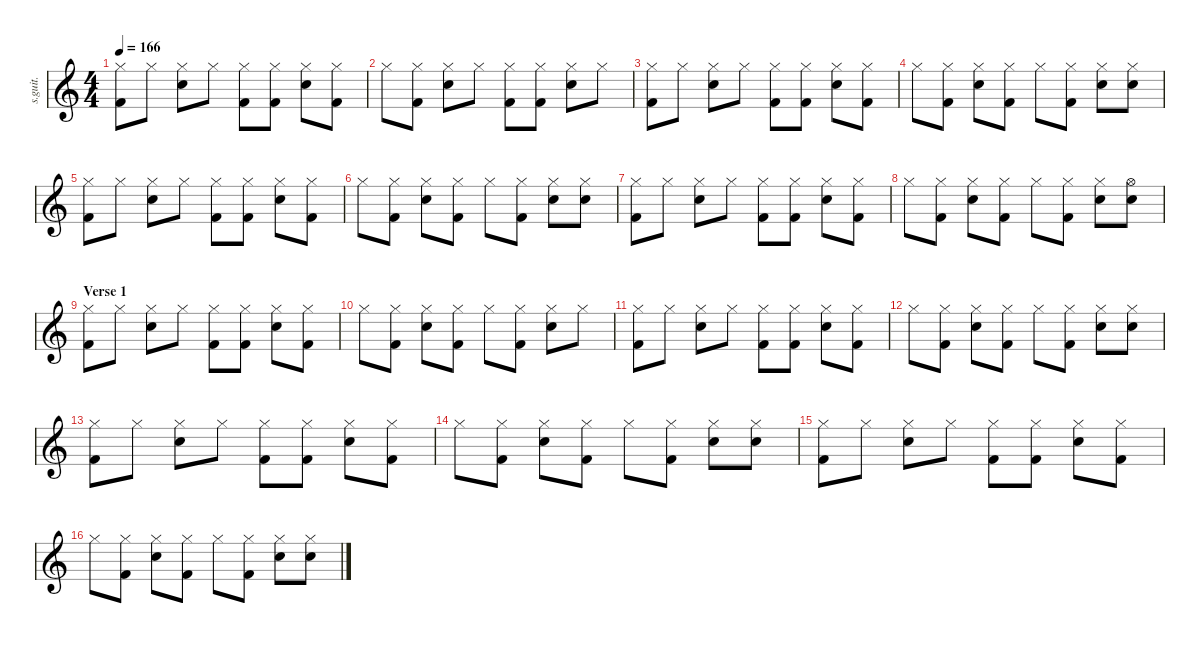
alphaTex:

\defaultSystemsLayout 4
\hideDynamics
\bracketExtendMode nobrackets
\track ("Phil Selway" "s.guit.") {instrument percussion}
\staff {score}
\articulation defaults
\ts (4 4)
\tempo 166
\clef g2
\ks c
("Hi-Hat (closed)" "Kick (hit) 2").8{lyrics (0 "") lyrics (1 "") lyrics (2 "") lyrics (3 "") lyrics (4 "") dy f} "Hi-Hat (closed)".8{lyrics (0 "") lyrics (1 "") lyrics (2 "") lyrics (3 "") lyrics (4 "") dy mp} ("Hi-Hat (closed)" "Electric Snare (hit)").8{lyrics (0 "") lyrics (1 "") lyrics (2 "") lyrics (3 "") lyrics (4 "") dy f} "Hi-Hat (closed)".8{lyrics (0 "") lyrics (1 "") lyrics (2 "") lyrics (3 "") lyrics (4 "") dy mp} ("Hi-Hat (closed)" "Kick (hit) 2").8{lyrics (0 "") lyrics (1 "") lyrics (2 "") lyrics (3 "") lyrics (4 "") dy f} ("Hi-Hat (closed)" "Kick (hit) 2").8{lyrics (0 "") lyrics (1 "") lyrics (2 "") lyrics (3 "") lyrics (4 "")} ("Hi-Hat (closed)" "Electric Snare (hit)").8{lyrics (0 "") lyrics (1 "") lyrics (2 "") lyrics (3 "") lyrics (4 "")} ("Hi-Hat (closed)" "Kick (hit) 2").8{lyrics (0 "") lyrics (1 "") lyrics (2 "") lyrics (3 "") lyrics (4 "")} |
"Hi-Hat (closed)".8{lyrics (0 "") lyrics (1 "") lyrics (2 "") lyrics (3 "") lyrics (4 "") dy ff} ("Hi-Hat (closed)" "Kick (hit) 2").8{lyrics (0 "") lyrics (1 "") lyrics (2 "") lyrics (3 "") lyrics (4 "") dy f} ("Hi-Hat (closed)" "Electric Snare (hit)").8{lyrics (0 "") lyrics (1 "") lyrics (2 "") lyrics (3 "") lyrics (4 "")} "Hi-Hat (closed)".8{lyrics (0 "") lyrics (1 "") lyrics (2 "") lyrics (3 "") lyrics (4 "") dy mp} ("Hi-Hat (closed)" "Kick (hit) 2").8{lyrics (0 "") lyrics (1 "") lyrics (2 "") lyrics (3 "") lyrics (4 "") dy f} ("Hi-Hat (closed)" "Kick (hit) 2").8{lyrics (0 "") lyrics (1 "") lyrics (2 "") lyrics (3 "") lyrics (4 "")} ("Hi-Hat (closed)" "Electric Snare (hit)").8{lyrics (0 "") lyrics (1 "") lyrics (2 "") lyrics (3 "") lyrics (4 "")} "Hi-Hat (closed)".8{lyrics (0 "") lyrics (1 "") lyrics (2 "") lyrics (3 "") lyrics (4 "") dy mp} |
("Hi-Hat (closed)" "Kick (hit) 2").8{lyrics (0 "") lyrics (1 "") lyrics (2 "") lyrics (3 "") lyrics (4 "") dy f} "Hi-Hat (closed)".8{lyrics (0 "") lyrics (1 "") lyrics (2 "") lyrics (3 "") lyrics (4 "") dy mp} ("Hi-Hat (closed)" "Electric Snare (hit)").8{lyrics (0 "") lyrics (1 "") lyrics (2 "") lyrics (3 "") lyrics (4 "") dy f} "Hi-Hat (closed)".8{lyrics (0 "") lyrics (1 "") lyrics (2 "") lyrics (3 "") lyrics (4 "") dy mp} ("Hi-Hat (closed)" "Kick (hit) 2").8{lyrics (0 "") lyrics (1 "") lyrics (2 "") lyrics (3 "") lyrics (4 "") dy f} ("Hi-Hat (closed)" "Kick (hit) 2").8{lyrics (0 "") lyrics (1 "") lyrics (2 "") lyrics (3 "") lyrics (4 "")} ("Hi-Hat (closed)" "Electric Snare (hit)").8{lyrics (0 "") lyrics (1 "") lyrics (2 "") lyrics (3 "") lyrics (4 "")} ("Hi-Hat (closed)" "Kick (hit) 2").8{lyrics (0 "") lyrics (1 "") lyrics (2 "") lyrics (3 "") lyrics (4 "")} |
"Hi-Hat (closed)".8{lyrics (0 "") lyrics (1 "") lyrics (2 "") lyrics (3 "") lyrics (4 "") dy ff} ("Hi-Hat (closed)" "Kick (hit) 2").8{lyrics (0 "") lyrics (1 "") lyrics (2 "") lyrics (3 "") lyrics (4 "") dy f} ("Hi-Hat (closed)" "Electric Snare (hit)").8{lyrics (0 "") lyrics (1 "") lyrics (2 "") lyrics (3 "") lyrics (4 "")} ("Hi-Hat (closed)" "Kick (hit) 2").8{lyrics (0 "") lyrics (1 "") lyrics (2 "") lyrics (3 "") lyrics (4 "")} "Hi-Hat (closed)".8{lyrics (0 "") lyrics (1 "") lyrics (2 "") lyrics (3 "") lyrics (4 "") dy ff} ("Hi-Hat (closed)" "Kick (hit) 2").8{lyrics (0 "") lyrics (1 "") lyrics (2 "") lyrics (3 "") lyrics (4 "") dy f} ("Hi-Hat (closed)" "Electric Snare (hit)").8{lyrics (0 "") lyrics (1 "") lyrics (2 "") lyrics (3 "") lyrics (4 "")} ("Hi-Hat (closed)" "Electric Snare (hit)").8{lyrics (0 "") lyrics (1 "") lyrics (2 "") lyrics (3 "") lyrics (4 "")} |
("Hi-Hat (closed)" "Kick (hit) 2").8{lyrics (0 "") lyrics (1 "") lyrics (2 "") lyrics (3 "") lyrics (4 "")} "Hi-Hat (closed)".8{lyrics (0 "") lyrics (1 "") lyrics (2 "") lyrics (3 "") lyrics (4 "") dy mp} ("Hi-Hat (closed)" "Electric Snare (hit)").8{lyrics (0 "") lyrics (1 "") lyrics (2 "") lyrics (3 "") lyrics (4 "") dy f} "Hi-Hat (closed)".8{lyrics (0 "") lyrics (1 "") lyrics (2 "") lyrics (3 "") lyrics (4 "") dy mp} ("Hi-Hat (closed)" "Kick (hit) 2").8{lyrics (0 "") lyrics (1 "") lyrics (2 "") lyrics (3 "") lyrics (4 "") dy f} ("Hi-Hat (closed)" "Kick (hit) 2").8{lyrics (0 "") lyrics (1 "") lyrics (2 "") lyrics (3 "") lyrics (4 "")} ("Hi-Hat (closed)" "Electric Snare (hit)").8{lyrics (0 "") lyrics (1 "") lyrics (2 "") lyrics (3 "") lyrics (4 "")} ("Hi-Hat (closed)" "Kick (hit) 2").8{lyrics (0 "") lyrics (1 "") lyrics (2 "") lyrics (3 "") lyrics (4 "")} |
"Hi-Hat (closed)".8{lyrics (0 "") lyrics (1 "") lyrics (2 "") lyrics (3 "") lyrics (4 "") dy ff} ("Hi-Hat (closed)" "Kick (hit) 2").8{lyrics (0 "") lyrics (1 "") lyrics (2 "") lyrics (3 "") lyrics (4 "") dy f} ("Hi-Hat (closed)" "Electric Snare (hit)").8{lyrics (0 "") lyrics (1 "") lyrics (2 "") lyrics (3 "") lyrics (4 "")} ("Hi-Hat (closed)" "Kick (hit) 2").8{lyrics (0 "") lyrics (1 "") lyrics (2 "") lyrics (3 "") lyrics (4 "")} "Hi-Hat (closed)".8{lyrics (0 "") lyrics (1 "") lyrics (2 "") lyrics (3 "") lyrics (4 "") dy ff} ("Hi-Hat (closed)" "Kick (hit) 2").8{lyrics (0 "") lyrics (1 "") lyrics (2 "") lyrics (3 "") lyrics (4 "") dy f} ("Hi-Hat (closed)" "Electric Snare (hit)").8{lyrics (0 "") lyrics (1 "") lyrics (2 "") lyrics (3 "") lyrics (4 "")} ("Hi-Hat (closed)" "Electric Snare (hit)").8{lyrics (0 "") lyrics (1 "") lyrics (2 "") lyrics (3 "") lyrics (4 "")} |
("Hi-Hat (closed)" "Kick (hit) 2").8{lyrics (0 "") lyrics (1 "") lyrics (2 "") lyrics (3 "") lyrics (4 "")} "Hi-Hat (closed)".8{lyrics (0 "") lyrics (1 "") lyrics (2 "") lyrics (3 "") lyrics (4 "") dy mp} ("Hi-Hat (closed)" "Electric Snare (hit)").8{lyrics (0 "") lyrics (1 "") lyrics (2 "") lyrics (3 "") lyrics (4 "") dy f} "Hi-Hat (closed)".8{lyrics (0 "") lyrics (1 "") lyrics (2 "") lyrics (3 "") lyrics (4 "") dy mp} ("Hi-Hat (closed)" "Kick (hit) 2").8{lyrics (0 "") lyrics (1 "") lyrics (2 "") lyrics (3 "") lyrics (4 "") dy f} ("Hi-Hat (closed)" "Kick (hit) 2").8{lyrics (0 "") lyrics (1 "") lyrics (2 "") lyrics (3 "") lyrics (4 "")} ("Hi-Hat (closed)" "Electric Snare (hit)").8{lyrics (0 "") lyrics (1 "") lyrics (2 "") lyrics (3 "") lyrics (4 "")} ("Hi-Hat (closed)" "Kick (hit) 2").8{lyrics (0 "") lyrics (1 "") lyrics (2 "") lyrics (3 "") lyrics (4 "")} |
"Hi-Hat (closed)".8{lyrics (0 "") lyrics (1 "") lyrics (2 "") lyrics (3 "") lyrics (4 "") dy ff} ("Hi-Hat (closed)" "Kick (hit) 2").8{lyrics (0 "") lyrics (1 "") lyrics (2 "") lyrics (3 "") lyrics (4 "") dy f} ("Hi-Hat (closed)" "Electric Snare (hit)").8{lyrics (0 "") lyrics (1 "") lyrics (2 "") lyrics (3 "") lyrics (4 "")} ("Hi-Hat (closed)" "Kick (hit) 2").8{lyrics (0 "") lyrics (1 "") lyrics (2 "") lyrics (3 "") lyrics (4 "")} "Hi-Hat (closed)".8{lyrics (0 "") lyrics (1 "") lyrics (2 "") lyrics (3 "") lyrics (4 "") dy ff} ("Hi-Hat (closed)" "Kick (hit) 2").8{lyrics (0 "") lyrics (1 "") lyrics (2 "") lyrics (3 "") lyrics (4 "") dy f} ("Hi-Hat (closed)" "Electric Snare (hit)").8{lyrics (0 "") lyrics (1 "") lyrics (2 "") lyrics (3 "") lyrics (4 "")} ("Hi-Hat (open)" "Electric Snare (hit)").8{lyrics (0 "") lyrics (1 "") lyrics (2 "") lyrics (3 "") lyrics (4 "")} |
\section ("" "Verse 1")
("Hi-Hat (closed)" "Kick (hit) 2").8{lyrics (0 "") lyrics (1 "") lyrics (2 "") lyrics (3 "") lyrics (4 "")} "Hi-Hat (closed)".8{lyrics (0 "") lyrics (1 "") lyrics (2 "") lyrics (3 "") lyrics (4 "") dy mp} ("Hi-Hat (closed)" "Electric Snare (hit)").8{lyrics (0 "") lyrics (1 "") lyrics (2 "") lyrics (3 "") lyrics (4 "") dy f} "Hi-Hat (closed)".8{lyrics (0 "") lyrics (1 "") lyrics (2 "") lyrics (3 "") lyrics (4 "") dy mp} ("Hi-Hat (closed)" "Kick (hit) 2").8{lyrics (0 "") lyrics (1 "") lyrics (2 "") lyrics (3 "") lyrics (4 "") dy f} ("Hi-Hat (closed)" "Kick (hit) 2").8{lyrics (0 "") lyrics (1 "") lyrics (2 "") lyrics (3 "") lyrics (4 "")} ("Hi-Hat (closed)" "Electric Snare (hit)").8{lyrics (0 "") lyrics (1 "") lyrics (2 "") lyrics (3 "") lyrics (4 "")} ("Hi-Hat (closed)" "Kick (hit) 2").8{lyrics (0 "") lyrics (1 "") lyrics (2 "") lyrics (3 "") lyrics (4 "")} |
"Hi-Hat (closed)".8{lyrics (0 "") lyrics (1 "") lyrics (2 "") lyrics (3 "") lyrics (4 "") dy ff} ("Hi-Hat (closed)" "Kick (hit) 2").8{lyrics (0 "") lyrics (1 "") lyrics (2 "") lyrics (3 "") lyrics (4 "") dy f} ("Hi-Hat (closed)" "Electric Snare (hit)").8{lyrics (0 "") lyrics (1 "") lyrics (2 "") lyrics (3 "") lyrics (4 "")} ("Hi-Hat (closed)" "Kick (hit) 2").8{lyrics (0 "") lyrics (1 "") lyrics (2 "") lyrics (3 "") lyrics (4 "")} "Hi-Hat (closed)".8{lyrics (0 "") lyrics (1 "") lyrics (2 "") lyrics (3 "") lyrics (4 "") dy ff} ("Hi-Hat (closed)" "Kick (hit) 2").8{lyrics (0 "") lyrics (1 "") lyrics (2 "") lyrics (3 "") lyrics (4 "") dy f} ("Hi-Hat (closed)" "Electric Snare (hit)").8{lyrics (0 "") lyrics (1 "") lyrics (2 "") lyrics (3 "") lyrics (4 "")} "Hi-Hat (closed)".8{lyrics (0 "") lyrics (1 "") lyrics (2 "") lyrics (3 "") lyrics (4 "") dy mp} |
("Hi-Hat (closed)" "Kick (hit) 2").8{lyrics (0 "") lyrics (1 "") lyrics (2 "") lyrics (3 "") lyrics (4 "") dy f} "Hi-Hat (closed)".8{lyrics (0 "") lyrics (1 "") lyrics (2 "") lyrics (3 "") lyrics (4 "") dy mp} ("Hi-Hat (closed)" "Electric Snare (hit)").8{lyrics (0 "") lyrics (1 "") lyrics (2 "") lyrics (3 "") lyrics (4 "") dy f} "Hi-Hat (closed)".8{lyrics (0 "") lyrics (1 "") lyrics (2 "") lyrics (3 "") lyrics (4 "") dy mp} ("Hi-Hat (closed)" "Kick (hit) 2").8{lyrics (0 "") lyrics (1 "") lyrics (2 "") lyrics (3 "") lyrics (4 "") dy f} ("Hi-Hat (closed)" "Kick (hit) 2").8{lyrics (0 "") lyrics (1 "") lyrics (2 "") lyrics (3 "") lyrics (4 "")} ("Hi-Hat (closed)" "Electric Snare (hit)").8{lyrics (0 "") lyrics (1 "") lyrics (2 "") lyrics (3 "") lyrics (4 "")} ("Hi-Hat (closed)" "Kick (hit) 2").8{lyrics (0 "") lyrics (1 "") lyrics (2 "") lyrics (3 "") lyrics (4 "")} |
"Hi-Hat (closed)".8{lyrics (0 "") lyrics (1 "") lyrics (2 "") lyrics (3 "") lyrics (4 "") dy ff} ("Hi-Hat (closed)" "Kick (hit) 2").8{lyrics (0 "") lyrics (1 "") lyrics (2 "") lyrics (3 "") lyrics (4 "") dy f} ("Hi-Hat (closed)" "Electric Snare (hit)").8{lyrics (0 "") lyrics (1 "") lyrics (2 "") lyrics (3 "") lyrics (4 "")} ("Hi-Hat (closed)" "Kick (hit) 2").8{lyrics (0 "") lyrics (1 "") lyrics (2 "") lyrics (3 "") lyrics (4 "")} "Hi-Hat (closed)".8{lyrics (0 "") lyrics (1 "") lyrics (2 "") lyrics (3 "") lyrics (4 "") dy ff} ("Hi-Hat (closed)" "Kick (hit) 2").8{lyrics (0 "") lyrics (1 "") lyrics (2 "") lyrics (3 "") lyrics (4 "") dy f} ("Hi-Hat (closed)" "Electric Snare (hit)").8{lyrics (0 "") lyrics (1 "") lyrics (2 "") lyrics (3 "") lyrics (4 "")} ("Hi-Hat (closed)" "Snare (hit) 2").8{lyrics (0 "") lyrics (1 "") lyrics (2 "") lyrics (3 "") lyrics (4 "")} |
("Hi-Hat (closed)" "Kick (hit) 2").8{lyrics (0 "") lyrics (1 "") lyrics (2 "") lyrics (3 "") lyrics (4 "")} "Hi-Hat (closed)".8{lyrics (0 "") lyrics (1 "") lyrics (2 "") lyrics (3 "") lyrics (4 "") dy mp} ("Hi-Hat (closed)" "Electric Snare (hit)").8{lyrics (0 "") lyrics (1 "") lyrics (2 "") lyrics (3 "") lyrics (4 "") dy f} "Hi-Hat (closed)".8{lyrics (0 "") lyrics (1 "") lyrics (2 "") lyrics (3 "") lyrics (4 "") dy mp} ("Hi-Hat (closed)" "Kick (hit) 2").8{lyrics (0 "") lyrics (1 "") lyrics (2 "") lyrics (3 "") lyrics (4 "") dy f} ("Hi-Hat (closed)" "Kick (hit) 2").8{lyrics (0 "") lyrics (1 "") lyrics (2 "") lyrics (3 "") lyrics (4 "")} ("Hi-Hat (closed)" "Electric Snare (hit)").8{lyrics (0 "") lyrics (1 "") lyrics (2 "") lyrics (3 "") lyrics (4 "")} ("Hi-Hat (closed)" "Kick (hit) 2").8{lyrics (0 "") lyrics (1 "") lyrics (2 "") lyrics (3 "") lyrics (4 "")} |
"Hi-Hat (closed)".8{lyrics (0 "") lyrics (1 "") lyrics (2 "") lyrics (3 "") lyrics (4 "") dy ff} ("Hi-Hat (closed)" "Kick (hit) 2").8{lyrics (0 "") lyrics (1 "") lyrics (2 "") lyrics (3 "") lyrics (4 "") dy f} ("Hi-Hat (closed)" "Electric Snare (hit)").8{lyrics (0 "") lyrics (1 "") lyrics (2 "") lyrics (3 "") lyrics (4 "")} ("Hi-Hat (closed)" "Kick (hit) 2").8{lyrics (0 "") lyrics (1 "") lyrics (2 "") lyrics (3 "") lyrics (4 "")} "Hi-Hat (closed)".8{lyrics (0 "") lyrics (1 "") lyrics (2 "") lyrics (3 "") lyrics (4 "") dy ff} ("Hi-Hat (closed)" "Kick (hit) 2").8{lyrics (0 "") lyrics (1 "") lyrics (2 "") lyrics (3 "") lyrics (4 "") dy f} ("Hi-Hat (closed)" "Electric Snare (hit)").8{lyrics (0 "") lyrics (1 "") lyrics (2 "") lyrics (3 "") lyrics (4 "")} ("Hi-Hat (closed)" "Snare (hit) 2").8{lyrics (0 "") lyrics (1 "") lyrics (2 "") lyrics (3 "") lyrics (4 "")} |
("Hi-Hat (closed)" "Kick (hit) 2").8{lyrics (0 "") lyrics (1 "") lyrics (2 "") lyrics (3 "") lyrics (4 "")} "Hi-Hat (closed)".8{lyrics (0 "") lyrics (1 "") lyrics (2 "") lyrics (3 "") lyrics (4 "") dy mp} ("Hi-Hat (closed)" "Electric Snare (hit)").8{lyrics (0 "") lyrics (1 "") lyrics (2 "") lyrics (3 "") lyrics (4 "") dy f} "Hi-Hat (closed)".8{lyrics (0 "") lyrics (1 "") lyrics (2 "") lyrics (3 "") lyrics (4 "") dy mp} ("Hi-Hat (closed)" "Kick (hit) 2").8{lyrics (0 "") lyrics (1 "") lyrics (2 "") lyrics (3 "") lyrics (4 "") dy f} ("Hi-Hat (closed)" "Kick (hit) 2").8{lyrics (0 "") lyrics (1 "") lyrics (2 "") lyrics (3 "") lyrics (4 "")} ("Hi-Hat (closed)" "Electric Snare (hit)").8{lyrics (0 "") lyrics (1 "") lyrics (2 "") lyrics (3 "") lyrics (4 "")} ("Hi-Hat (closed)" "Kick (hit) 2").8{lyrics (0 "") lyrics (1 "") lyrics (2 "") lyrics (3 "") lyrics (4 "")} |
"Hi-Hat (closed)".8{lyrics (0 "") lyrics (1 "") lyrics (2 "") lyrics (3 "") lyrics (4 "") dy ff} ("Hi-Hat (closed)" "Kick (hit) 2").8{lyrics (0 "") lyrics (1 "") lyrics (2 "") lyrics (3 "") lyrics (4 "") dy f} ("Hi-Hat (closed)" "Electric Snare (hit)").8{lyrics (0 "") lyrics (1 "") lyrics (2 "") lyrics (3 "") lyrics (4 "")} ("Hi-Hat (closed)" "Kick (hit) 2").8{lyrics (0 "") lyrics (1 "") lyrics (2 "") lyrics (3 "") lyrics (4 "")} "Hi-Hat (closed)".8{lyrics (0 "") lyrics (1 "") lyrics (2 "") lyrics (3 "") lyrics (4 "") dy ff} ("Hi-Hat (closed)" "Kick (hit) 2").8{lyrics (0 "") lyrics (1 "") lyrics (2 "") lyrics (3 "") lyrics (4 "") dy f} ("Hi-Hat (closed)" "Electric Snare (hit)").8{lyrics (0 "") lyrics (1 "") lyrics (2 "") lyrics (3 "") lyrics (4 "")} ("Hi-Hat (closed)" "Snare (hit) 2").8{lyrics (0 "") lyrics (1 "") lyrics (2 "") lyrics (3 "") lyrics (4 "")}
